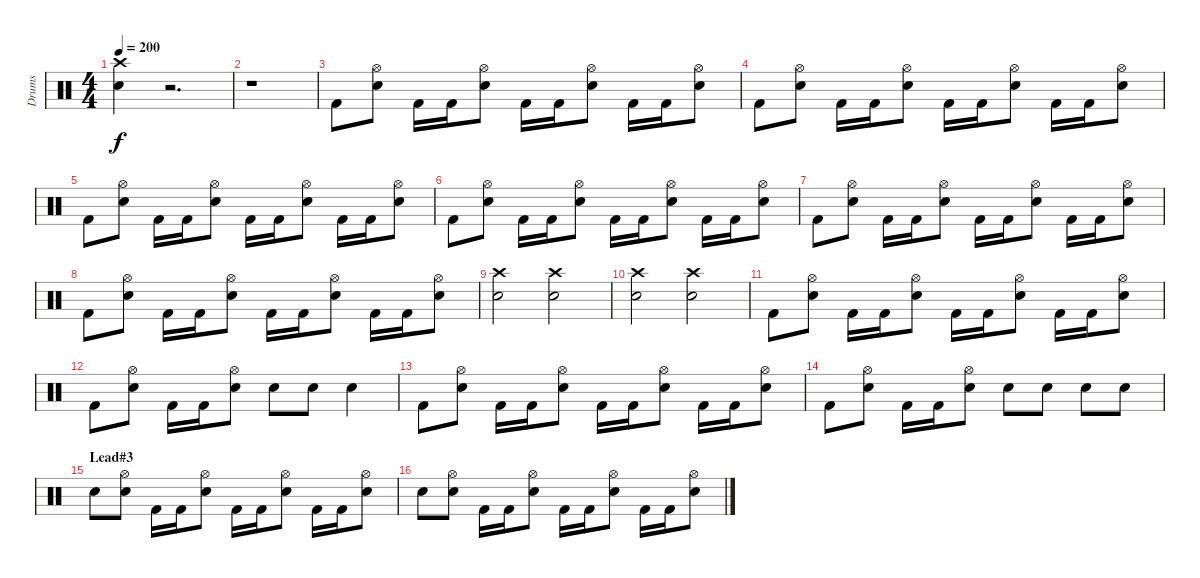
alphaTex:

\track ("Drums" "Drums") {instrument percussion}
\staff {score}
\articulation defaults
\ts (4 4)
\tempo 200
\clef neutral
\ks c
("Crash high (hit)" "Snare (hit) 2").4{dy f} r.2{d} |
r.1 |
"Kick (hit) 2".8 ("Hi-Hat (open)" "Snare (hit) 2").8 "Kick (hit) 2".16 "Kick (hit) 2".16 ("Hi-Hat (open)" "Snare (hit) 2").8 "Kick (hit) 2".16 "Kick (hit) 2".16 ("Hi-Hat (open)" "Snare (hit) 2").8 "Kick (hit) 2".16 "Kick (hit) 2".16 ("Hi-Hat (open)" "Snare (hit) 2").8 |
"Kick (hit) 2".8 ("Hi-Hat (open)" "Snare (hit) 2").8 "Kick (hit) 2".16 "Kick (hit) 2".16 ("Hi-Hat (open)" "Snare (hit) 2").8 "Kick (hit) 2".16 "Kick (hit) 2".16 ("Hi-Hat (open)" "Snare (hit) 2").8 "Kick (hit) 2".16 "Kick (hit) 2".16 ("Hi-Hat (open)" "Snare (hit) 2").8 |
"Kick (hit) 2".8 ("Hi-Hat (open)" "Snare (hit) 2").8 "Kick (hit) 2".16 "Kick (hit) 2".16 ("Hi-Hat (open)" "Snare (hit) 2").8 "Kick (hit) 2".16 "Kick (hit) 2".16 ("Hi-Hat (open)" "Snare (hit) 2").8 "Kick (hit) 2".16 "Kick (hit) 2".16 ("Hi-Hat (open)" "Snare (hit) 2").8 |
"Kick (hit) 2".8 ("Hi-Hat (open)" "Snare (hit) 2").8 "Kick (hit) 2".16 "Kick (hit) 2".16 ("Hi-Hat (open)" "Snare (hit) 2").8 "Kick (hit) 2".16 "Kick (hit) 2".16 ("Hi-Hat (open)" "Snare (hit) 2").8 "Kick (hit) 2".16 "Kick (hit) 2".16 ("Hi-Hat (open)" "Snare (hit) 2").8 |
"Kick (hit) 2".8 ("Hi-Hat (open)" "Snare (hit) 2").8 "Kick (hit) 2".16 "Kick (hit) 2".16 ("Hi-Hat (open)" "Snare (hit) 2").8 "Kick (hit) 2".16 "Kick (hit) 2".16 ("Hi-Hat (open)" "Snare (hit) 2").8 "Kick (hit) 2".16 "Kick (hit) 2".16 ("Hi-Hat (open)" "Snare (hit) 2").8 |
"Kick (hit) 2".8 ("Hi-Hat (open)" "Snare (hit) 2").8 "Kick (hit) 2".16 "Kick (hit) 2".16 ("Hi-Hat (open)" "Snare (hit) 2").8 "Kick (hit) 2".16 "Kick (hit) 2".16 ("Hi-Hat (open)" "Snare (hit) 2").8 "Kick (hit) 2".16 "Kick (hit) 2".16 ("Hi-Hat (open)" "Snare (hit) 2").8 |
("Crash high (hit)" "Snare (hit) 2").2 ("Crash high (hit)" "Snare (hit) 2").2 |
("Crash high (hit)" "Snare (hit) 2").2 ("Crash high (hit)" "Snare (hit) 2").2 |
"Kick (hit) 2".8 ("Hi-Hat (open)" "Snare (hit) 2").8 "Kick (hit) 2".16 "Kick (hit) 2".16 ("Hi-Hat (open)" "Snare (hit) 2").8 "Kick (hit) 2".16 "Kick (hit) 2".16 ("Hi-Hat (open)" "Snare (hit) 2").8 "Kick (hit) 2".16 "Kick (hit) 2".16 ("Hi-Hat (open)" "Snare (hit) 2").8 |
"Kick (hit) 2".8 ("Hi-Hat (open)" "Snare (hit) 2").8 "Kick (hit) 2".16 "Kick (hit) 2".16 ("Hi-Hat (open)" "Snare (hit) 2").8 "Snare (hit) 2".8 "Snare (hit) 2".8 "Snare (hit) 2".4 |
"Kick (hit) 2".8 ("Hi-Hat (open)" "Snare (hit) 2").8 "Kick (hit) 2".16 "Kick (hit) 2".16 ("Hi-Hat (open)" "Snare (hit) 2").8 "Kick (hit) 2".16 "Kick (hit) 2".16 ("Hi-Hat (open)" "Snare (hit) 2").8 "Kick (hit) 2".16 "Kick (hit) 2".16 ("Hi-Hat (open)" "Snare (hit) 2").8 |
"Kick (hit) 2".8 ("Hi-Hat (open)" "Snare (hit) 2").8 "Kick (hit) 2".16 "Kick (hit) 2".16 ("Hi-Hat (open)" "Snare (hit) 2").8 "Snare (hit) 2".8 "Snare (hit) 2".8 "Snare (hit) 2".8 "Snare (hit) 2".8 |
\section ("" "Lead#3")
"Snare (hit) 2".8 ("Hi-Hat (open)" "Snare (hit) 2").8 "Kick (hit) 2".16 "Kick (hit) 2".16 ("Hi-Hat (open)" "Snare (hit) 2").8 "Kick (hit) 2".16 "Kick (hit) 2".16 ("Hi-Hat (open)" "Snare (hit) 2").8 "Kick (hit) 2".16 "Kick (hit) 2".16 ("Hi-Hat (open)" "Snare (hit) 2").8 |
"Snare (hit) 2".8 ("Hi-Hat (open)" "Snare (hit) 2").8 "Kick (hit) 2".16 "Kick (hit) 2".16 ("Hi-Hat (open)" "Snare (hit) 2").8 "Kick (hit) 2".16 "Kick (hit) 2".16 ("Hi-Hat (open)" "Snare (hit) 2").8 "Kick (hit) 2".16 "Kick (hit) 2".16 ("Hi-Hat (open)" "Snare (hit) 2").8
